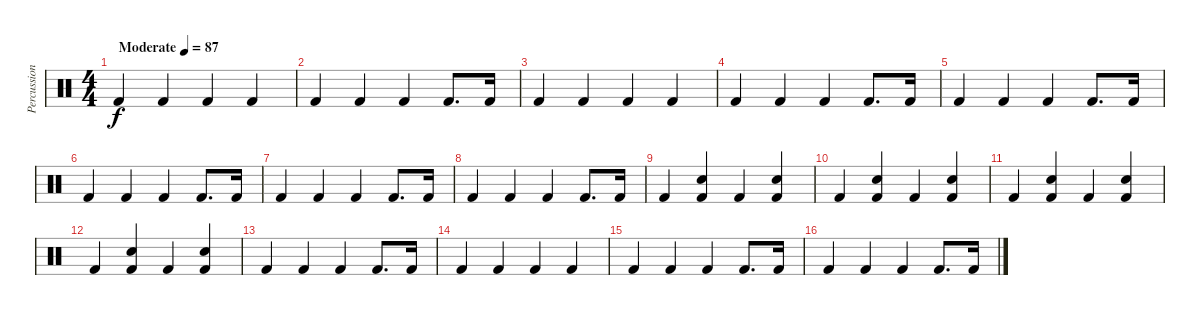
\track ("Percussion" "Percussion") {instrument percussion}
\staff {score}
\articulation defaults
\ts (4 4)
\tempo (87 "Moderate")
\clef neutral
\ks c "Kick (hit) 2".4{dy f} "Kick (hit) 2".4 "Kick (hit) 2".4 "Kick (hit) 2".4
|
"Kick (hit) 2".4 "Kick (hit) 2".4 "Kick (hit) 2".4 "Kick (hit) 2".8{d} "Kick (hit) 2".16 |
"Kick (hit) 2".4 "Kick (hit) 2".4 "Kick (hit) 2".4 "Kick (hit) 2".4 |
"Kick (hit) 2".4 "Kick (hit) 2".4 "Kick (hit) 2".4 "Kick (hit) 2".8{d} "Kick (hit) 2".16 |
"Kick (hit) 2".4 "Kick (hit) 2".4 "Kick (hit) 2".4 "Kick (hit) 2".8{d} "Kick (hit) 2".16 |
"Kick (hit) 2".4 "Kick (hit) 2".4 "Kick (hit) 2".4 "Kick (hit) 2".8{d} "Kick (hit) 2".16 |
"Kick (hit) 2".4 "Kick (hit) 2".4 "Kick (hit) 2".4 "Kick (hit) 2".8{d} "Kick (hit) 2".16 |
"Kick (hit) 2".4 "Kick (hit) 2".4 "Kick (hit) 2".4 "Kick (hit) 2".8{d} "Kick (hit) 2".16 |
"Kick (hit) 2".4 ("Kick (hit) 2" "Electric Snare (hit)").4 "Kick (hit) 2".4 ("Kick (hit) 2" "Electric Snare (hit)").4 |
"Kick (hit) 2".4 ("Kick (hit) 2" "Electric Snare (hit)").4 "Kick (hit) 2".4 ("Kick (hit) 2" "Electric Snare (hit)").4 |
"Kick (hit) 2".4 ("Kick (hit) 2" "Electric Snare (hit)").4 "Kick (hit) 2".4 ("Kick (hit) 2" "Electric Snare (hit)").4 |
"Kick (hit) 2".4 ("Kick (hit) 2" "Electric Snare (hit)").4 "Kick (hit) 2".4 ("Kick (hit) 2" "Electric Snare (hit)").4 |
"Kick (hit) 2".4 "Kick (hit) 2".4 "Kick (hit) 2".4 "Kick (hit) 2".8{d} "Kick (hit) 2".16 |
"Kick (hit) 2".4 "Kick (hit) 2".4 "Kick (hit) 2".4 "Kick (hit) 2".4 |
"Kick (hit) 2".4 "Kick (hit) 2".4 "Kick (hit) 2".4 "Kick (hit) 2".8{d} "Kick (hit) 2".16 |
"Kick (hit) 2".4 "Kick (hit) 2".4 "Kick (hit) 2".4 "Kick (hit) 2".8{d} "Kick (hit) 2".16
